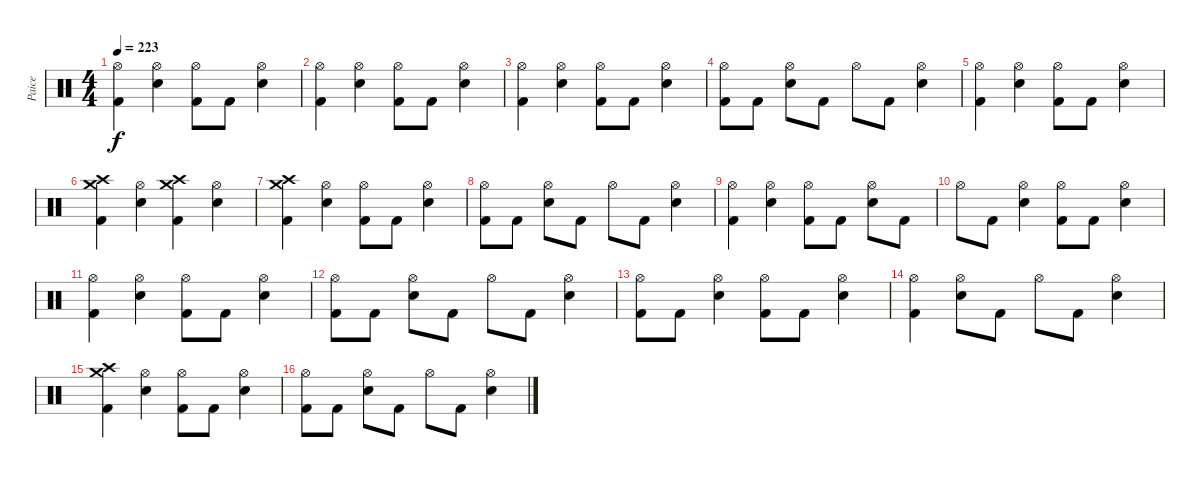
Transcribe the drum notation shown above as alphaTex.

\track ("Paice" "Paice") {instrument percussion}
\staff {score}
\articulation defaults
\ts (4 4)
\tempo 223
\clef neutral
\ks c
("Hi-Hat (open)" "Kick (hit) 2").4{dy f} ("Hi-Hat (open)" "Electric Snare (hit)").4 ("Hi-Hat (open)" "Kick (hit) 2").8 "Kick (hit) 2".8 ("Hi-Hat (open)" "Electric Snare (hit)").4 |
("Hi-Hat (open)" "Kick (hit) 2").4 ("Hi-Hat (open)" "Electric Snare (hit)").4 ("Hi-Hat (open)" "Kick (hit) 2").8 "Kick (hit) 2".8 ("Hi-Hat (open)" "Electric Snare (hit)").4 |
("Hi-Hat (open)" "Kick (hit) 2").4 ("Hi-Hat (open)" "Electric Snare (hit)").4 ("Hi-Hat (open)" "Kick (hit) 2").8 "Kick (hit) 2".8 ("Hi-Hat (open)" "Electric Snare (hit)").4 |
("Hi-Hat (open)" "Kick (hit) 2").8 "Kick (hit) 2".8 ("Hi-Hat (open)" "Electric Snare (hit)").8 "Kick (hit) 2".8 "Hi-Hat (open)".8 "Kick (hit) 2".8 ("Hi-Hat (open)" "Electric Snare (hit)").4 |
("Hi-Hat (open)" "Kick (hit) 2").4 ("Hi-Hat (open)" "Electric Snare (hit)").4 ("Hi-Hat (open)" "Kick (hit) 2").8 "Kick (hit) 2".8 ("Hi-Hat (open)" "Electric Snare (hit)").4 |
("Crash high (hit)" "Crash medium (hit)" "Kick (hit) 2").4 ("Hi-Hat (open)" "Electric Snare (hit)").4 ("Crash high (hit)" "Crash medium (hit)" "Kick (hit) 2").4 ("Hi-Hat (open)" "Electric Snare (hit)").4 |
("Crash high (hit)" "Crash medium (hit)" "Kick (hit) 2").4 ("Hi-Hat (open)" "Electric Snare (hit)").4 ("Hi-Hat (open)" "Kick (hit) 2").8 "Kick (hit) 2".8 ("Hi-Hat (open)" "Electric Snare (hit)").4 |
("Hi-Hat (open)" "Kick (hit) 2").8 "Kick (hit) 2".8 ("Hi-Hat (open)" "Electric Snare (hit)").8 "Kick (hit) 2".8 "Hi-Hat (open)".8 "Kick (hit) 2".8 ("Hi-Hat (open)" "Electric Snare (hit)").4 |
("Hi-Hat (open)" "Kick (hit) 2").4 ("Hi-Hat (open)" "Electric Snare (hit)").4 ("Hi-Hat (open)" "Kick (hit) 2").8 "Kick (hit) 2".8 ("Hi-Hat (open)" "Electric Snare (hit)").8 "Kick (hit) 2".8 |
"Hi-Hat (open)".8 "Kick (hit) 2".8 ("Hi-Hat (open)" "Electric Snare (hit)").4 ("Hi-Hat (open)" "Kick (hit) 2").8 "Kick (hit) 2".8 ("Hi-Hat (open)" "Electric Snare (hit)").4 |
("Hi-Hat (open)" "Kick (hit) 2").4 ("Hi-Hat (open)" "Electric Snare (hit)").4 ("Hi-Hat (open)" "Kick (hit) 2").8 "Kick (hit) 2".8 ("Hi-Hat (open)" "Electric Snare (hit)").4 |
("Hi-Hat (open)" "Kick (hit) 2").8 "Kick (hit) 2".8 ("Hi-Hat (open)" "Electric Snare (hit)").8 "Kick (hit) 2".8 "Hi-Hat (open)".8 "Kick (hit) 2".8 ("Hi-Hat (open)" "Electric Snare (hit)").4 |
("Hi-Hat (open)" "Kick (hit) 2").8 "Kick (hit) 2".8 ("Hi-Hat (open)" "Electric Snare (hit)").4 ("Hi-Hat (open)" "Kick (hit) 2").8 "Kick (hit) 2".8 ("Hi-Hat (open)" "Electric Snare (hit)").4 |
("Hi-Hat (open)" "Kick (hit) 2").4 ("Hi-Hat (open)" "Electric Snare (hit)").8 "Kick (hit) 2".8 "Hi-Hat (open)".8 "Kick (hit) 2".8 ("Hi-Hat (open)" "Electric Snare (hit)").4 |
("Crash high (hit)" "Crash medium (hit)" "Kick (hit) 2").4 ("Hi-Hat (open)" "Electric Snare (hit)").4 ("Hi-Hat (open)" "Kick (hit) 2").8 "Kick (hit) 2".8 ("Hi-Hat (open)" "Electric Snare (hit)").4 |
("Hi-Hat (open)" "Kick (hit) 2").8 "Kick (hit) 2".8 ("Hi-Hat (open)" "Electric Snare (hit)").8 "Kick (hit) 2".8 "Hi-Hat (open)".8 "Kick (hit) 2".8 ("Hi-Hat (open)" "Electric Snare (hit)").4
